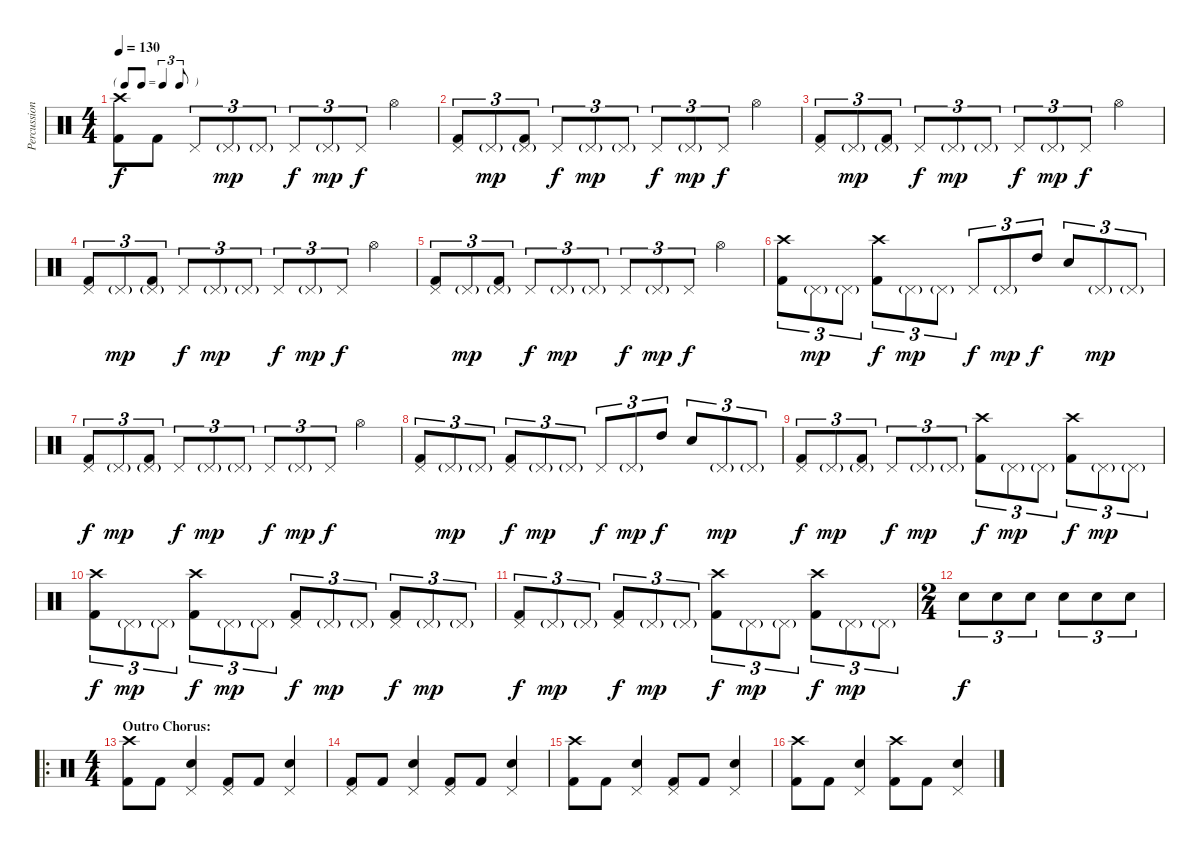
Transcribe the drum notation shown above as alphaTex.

\track ("Percussion" "Percussion") {instrument percussion}
\staff {score}
\articulation defaults
\ts (4 4)
\tf triplet8th
\tempo 130
\clef neutral
\ks c
("Crash high (hit)" "Kick (hit) 2").8{dy f} "Kick (hit) 2".8 "Pedal Hi-Hat (hit)".8{tu (3 2)} "Pedal Hi-Hat (hit)"{g}.8{tu (3 2) dy mp} "Pedal Hi-Hat (hit)"{g}.8{tu (3 2)} "Pedal Hi-Hat (hit)".8{tu (3 2) dy f} "Pedal Hi-Hat (hit)"{g}.8{tu (3 2) dy mp} "Pedal Hi-Hat (hit)".8{tu (3 2) dy f} "Hi-Hat (open)".4 |
("Pedal Hi-Hat (hit)" "Kick (hit) 2").8{tu (3 2)} "Pedal Hi-Hat (hit)"{g}.8{tu (3 2) dy mp} ("Pedal Hi-Hat (hit)"{g} "Kick (hit) 2").8{tu (3 2)} "Pedal Hi-Hat (hit)".8{tu (3 2) dy f} "Pedal Hi-Hat (hit)"{g}.8{tu (3 2) dy mp} "Pedal Hi-Hat (hit)"{g}.8{tu (3 2)} "Pedal Hi-Hat (hit)".8{tu (3 2) dy f} "Pedal Hi-Hat (hit)"{g}.8{tu (3 2) dy mp} "Pedal Hi-Hat (hit)".8{tu (3 2) dy f} "Hi-Hat (open)".4 |
("Pedal Hi-Hat (hit)" "Kick (hit) 2").8{tu (3 2)} "Pedal Hi-Hat (hit)"{g}.8{tu (3 2) dy mp} ("Pedal Hi-Hat (hit)"{g} "Kick (hit) 2").8{tu (3 2)} "Pedal Hi-Hat (hit)".8{tu (3 2) dy f} "Pedal Hi-Hat (hit)"{g}.8{tu (3 2) dy mp} "Pedal Hi-Hat (hit)"{g}.8{tu (3 2)} "Pedal Hi-Hat (hit)".8{tu (3 2) dy f} "Pedal Hi-Hat (hit)"{g}.8{tu (3 2) dy mp} "Pedal Hi-Hat (hit)".8{tu (3 2) dy f} "Hi-Hat (open)".4 |
("Pedal Hi-Hat (hit)" "Kick (hit) 2").8{tu (3 2)} "Pedal Hi-Hat (hit)"{g}.8{tu (3 2) dy mp} ("Pedal Hi-Hat (hit)"{g} "Kick (hit) 2").8{tu (3 2)} "Pedal Hi-Hat (hit)".8{tu (3 2) dy f} "Pedal Hi-Hat (hit)"{g}.8{tu (3 2) dy mp} "Pedal Hi-Hat (hit)"{g}.8{tu (3 2)} "Pedal Hi-Hat (hit)".8{tu (3 2) dy f} "Pedal Hi-Hat (hit)"{g}.8{tu (3 2) dy mp} "Pedal Hi-Hat (hit)".8{tu (3 2) dy f} "Hi-Hat (open)".4 |
("Pedal Hi-Hat (hit)" "Kick (hit) 2").8{tu (3 2)} "Pedal Hi-Hat (hit)"{g}.8{tu (3 2) dy mp} ("Pedal Hi-Hat (hit)"{g} "Kick (hit) 2").8{tu (3 2)} "Pedal Hi-Hat (hit)".8{tu (3 2) dy f} "Pedal Hi-Hat (hit)"{g}.8{tu (3 2) dy mp} "Pedal Hi-Hat (hit)"{g}.8{tu (3 2)} "Pedal Hi-Hat (hit)".8{tu (3 2) dy f} "Pedal Hi-Hat (hit)"{g}.8{tu (3 2) dy mp} "Pedal Hi-Hat (hit)".8{tu (3 2) dy f} "Hi-Hat (open)".4 |
("Crash high (hit)" "Kick (hit) 2").8{tu (3 2)} "Pedal Hi-Hat (hit)"{g}.8{tu (3 2) dy mp} "Pedal Hi-Hat (hit)"{g}.8{tu (3 2)} ("Crash high (hit)" "Kick (hit) 2").8{tu (3 2) dy f} "Pedal Hi-Hat (hit)"{g}.8{tu (3 2) dy mp} "Pedal Hi-Hat (hit)"{g}.8{tu (3 2)} "Pedal Hi-Hat (hit)".8{tu (3 2) dy f} "Pedal Hi-Hat (hit)"{g}.8{tu (3 2) dy mp} "High Tom (hit)".8{tu (3 2) dy f} "Electric Snare (hit)".8{tu (3 2)} "Pedal Hi-Hat (hit)"{g}.8{tu (3 2) dy mp} "Pedal Hi-Hat (hit)"{g}.8{tu (3 2)} |
("Pedal Hi-Hat (hit)" "Kick (hit) 2").8{tu (3 2) dy f} "Pedal Hi-Hat (hit)"{g}.8{tu (3 2) dy mp} ("Pedal Hi-Hat (hit)"{g} "Kick (hit) 2").8{tu (3 2)} "Pedal Hi-Hat (hit)".8{tu (3 2) dy f} "Pedal Hi-Hat (hit)"{g}.8{tu (3 2) dy mp} "Pedal Hi-Hat (hit)"{g}.8{tu (3 2)} "Pedal Hi-Hat (hit)".8{tu (3 2) dy f} "Pedal Hi-Hat (hit)"{g}.8{tu (3 2) dy mp} "Pedal Hi-Hat (hit)".8{tu (3 2) dy f} "Hi-Hat (open)".4 |
("Pedal Hi-Hat (hit)" "Kick (hit) 2").8{tu (3 2)} "Pedal Hi-Hat (hit)"{g}.8{tu (3 2) dy mp} "Pedal Hi-Hat (hit)"{g}.8{tu (3 2)} ("Pedal Hi-Hat (hit)" "Kick (hit) 2").8{tu (3 2) dy f} "Pedal Hi-Hat (hit)"{g}.8{tu (3 2) dy mp} "Pedal Hi-Hat (hit)"{g}.8{tu (3 2)} "Pedal Hi-Hat (hit)".8{tu (3 2) dy f} "Pedal Hi-Hat (hit)"{g}.8{tu (3 2) dy mp} "High Tom (hit)".8{tu (3 2) dy f} "Electric Snare (hit)".8{tu (3 2)} "Pedal Hi-Hat (hit)"{g}.8{tu (3 2) dy mp} "Pedal Hi-Hat (hit)"{g}.8{tu (3 2)} |
("Pedal Hi-Hat (hit)" "Kick (hit) 2").8{tu (3 2) dy f} "Pedal Hi-Hat (hit)"{g}.8{tu (3 2) dy mp} ("Pedal Hi-Hat (hit)"{g} "Kick (hit) 2").8{tu (3 2)} "Pedal Hi-Hat (hit)".8{tu (3 2) dy f} "Pedal Hi-Hat (hit)"{g}.8{tu (3 2) dy mp} "Pedal Hi-Hat (hit)"{g}.8{tu (3 2)} ("Crash high (hit)" "Kick (hit) 2").8{tu (3 2) dy f} "Pedal Hi-Hat (hit)"{g}.8{tu (3 2) dy mp} "Pedal Hi-Hat (hit)"{g}.8{tu (3 2)} ("Crash high (hit)" "Kick (hit) 2").8{tu (3 2) dy f} "Pedal Hi-Hat (hit)"{g}.8{tu (3 2) dy mp} "Pedal Hi-Hat (hit)"{g}.8{tu (3 2)} |
("Crash high (hit)" "Kick (hit) 2").8{tu (3 2) dy f} "Pedal Hi-Hat (hit)"{g}.8{tu (3 2) dy mp} "Pedal Hi-Hat (hit)"{g}.8{tu (3 2)} ("Crash high (hit)" "Kick (hit) 2").8{tu (3 2) dy f} "Pedal Hi-Hat (hit)"{g}.8{tu (3 2) dy mp} "Pedal Hi-Hat (hit)"{g}.8{tu (3 2)} ("Pedal Hi-Hat (hit)" "Kick (hit) 2").8{tu (3 2) dy f} "Pedal Hi-Hat (hit)"{g}.8{tu (3 2) dy mp} "Pedal Hi-Hat (hit)"{g}.8{tu (3 2)} ("Pedal Hi-Hat (hit)" "Kick (hit) 2").8{tu (3 2) dy f} "Pedal Hi-Hat (hit)"{g}.8{tu (3 2) dy mp} "Pedal Hi-Hat (hit)"{g}.8{tu (3 2)} |
("Pedal Hi-Hat (hit)" "Kick (hit) 2").8{tu (3 2) dy f} "Pedal Hi-Hat (hit)"{g}.8{tu (3 2) dy mp} "Pedal Hi-Hat (hit)"{g}.8{tu (3 2)} ("Pedal Hi-Hat (hit)" "Kick (hit) 2").8{tu (3 2) dy f} "Pedal Hi-Hat (hit)"{g}.8{tu (3 2) dy mp} "Pedal Hi-Hat (hit)"{g}.8{tu (3 2)} ("Crash high (hit)" "Kick (hit) 2").8{tu (3 2) dy f} "Pedal Hi-Hat (hit)"{g}.8{tu (3 2) dy mp} "Pedal Hi-Hat (hit)"{g}.8{tu (3 2)} ("Crash high (hit)" "Kick (hit) 2").8{tu (3 2) dy f} "Pedal Hi-Hat (hit)"{g}.8{tu (3 2) dy mp} "Pedal Hi-Hat (hit)"{g}.8{tu (3 2)} |
\ts (2 4)
"Electric Snare (hit)".8{tu (3 2) dy f} "Electric Snare (hit)".8{tu (3 2)} "Electric Snare (hit)".8{tu (3 2)} "Electric Snare (hit)".8{tu (3 2)} "Electric Snare (hit)".8{tu (3 2)} "Electric Snare (hit)".8{tu (3 2)} |
\ro
\ts (4 4)
\section ("" "Outro Chorus:")
("Crash high (hit)" "Kick (hit) 2").8 "Kick (hit) 2".8 ("Pedal Hi-Hat (hit)" "Electric Snare (hit)").4 ("Pedal Hi-Hat (hit)" "Kick (hit) 2").8 "Kick (hit) 2".8 ("Pedal Hi-Hat (hit)" "Electric Snare (hit)").4 |
("Pedal Hi-Hat (hit)" "Kick (hit) 2").8 "Kick (hit) 2".8 ("Pedal Hi-Hat (hit)" "Electric Snare (hit)").4 ("Pedal Hi-Hat (hit)" "Kick (hit) 2").8 "Kick (hit) 2".8 ("Pedal Hi-Hat (hit)" "Electric Snare (hit)").4 |
("Crash high (hit)" "Kick (hit) 2").8 "Kick (hit) 2".8 ("Pedal Hi-Hat (hit)" "Electric Snare (hit)").4 ("Pedal Hi-Hat (hit)" "Kick (hit) 2").8 "Kick (hit) 2".8 ("Pedal Hi-Hat (hit)" "Electric Snare (hit)").4 |
("Crash high (hit)" "Kick (hit) 2").8 "Kick (hit) 2".8 ("Pedal Hi-Hat (hit)" "Electric Snare (hit)").4 ("Crash high (hit)" "Kick (hit) 2").8 "Kick (hit) 2".8 ("Pedal Hi-Hat (hit)" "Electric Snare (hit)").4
